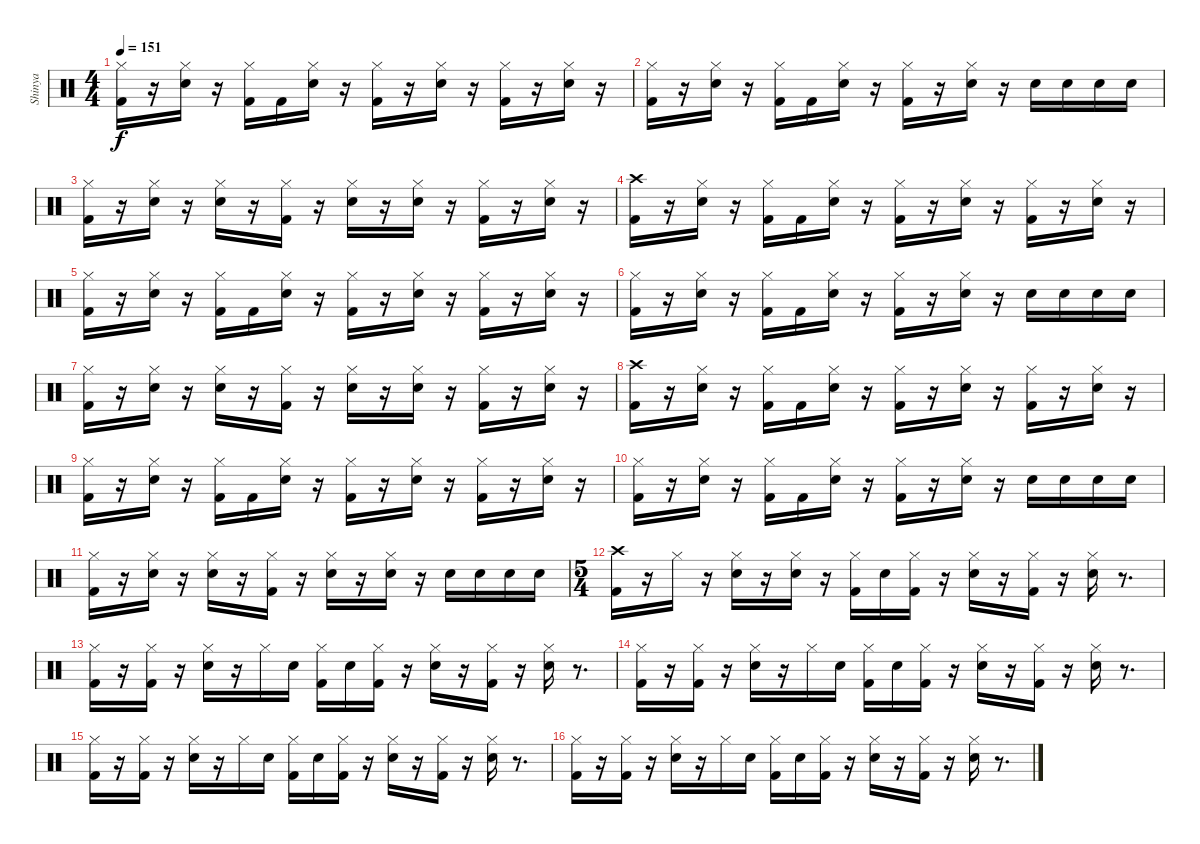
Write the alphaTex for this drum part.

\track ("Shinya" "Shinya") {instrument percussion}
\staff {score}
\articulation defaults
\ts (4 4)
\tempo 151
\clef neutral
\ks c
("Hi-Hat (closed)" "Kick (hit) 2").16{dy f} r.16 ("Snare (hit) 2" "Hi-Hat (closed)").16 r.16 ("Hi-Hat (closed)" "Kick (hit) 2").16 "Kick (hit) 2".16 ("Snare (hit) 2" "Hi-Hat (closed)").16 r.16 ("Hi-Hat (closed)" "Kick (hit) 2").16 r.16 ("Snare (hit) 2" "Hi-Hat (closed)").16 r.16 ("Hi-Hat (closed)" "Kick (hit) 2").16 r.16 ("Snare (hit) 2" "Hi-Hat (closed)").16 r.16 |
("Kick (hit) 2" "Hi-Hat (closed)").16 r.16 ("Snare (hit) 2" "Hi-Hat (closed)").16 r.16 ("Kick (hit) 2" "Hi-Hat (closed)").16 "Kick (hit) 2".16 ("Snare (hit) 2" "Hi-Hat (closed)").16 r.16 ("Kick (hit) 2" "Hi-Hat (closed)").16 r.16 ("Snare (hit) 2" "Hi-Hat (closed)").16 r.16 "Snare (hit) 2".16 "Snare (hit) 2".16 "Snare (hit) 2".16 "Snare (hit) 2".16 |
("Kick (hit) 2" "Hi-Hat (closed)").16 r.16 ("Snare (hit) 2" "Hi-Hat (closed)").16 r.16 ("Snare (hit) 2" "Hi-Hat (closed)").16 r.16 ("Kick (hit) 2" "Hi-Hat (closed)").16 r.16 ("Snare (hit) 2" "Hi-Hat (closed)").16 r.16 ("Snare (hit) 2" "Hi-Hat (closed)").16 r.16 ("Kick (hit) 2" "Hi-Hat (closed)").16 r.16 ("Snare (hit) 2" "Hi-Hat (closed)").16 r.16 |
("Kick (hit) 2" "Crash high (hit)").16 r.16 ("Snare (hit) 2" "Hi-Hat (closed)").16 r.16 ("Kick (hit) 2" "Hi-Hat (closed)").16 "Kick (hit) 2".16 ("Snare (hit) 2" "Hi-Hat (closed)").16 r.16 ("Kick (hit) 2" "Hi-Hat (closed)").16 r.16 ("Snare (hit) 2" "Hi-Hat (closed)").16 r.16 ("Kick (hit) 2" "Hi-Hat (closed)").16 r.16 ("Snare (hit) 2" "Hi-Hat (closed)").16 r.16 |
("Hi-Hat (closed)" "Kick (hit) 2").16 r.16 ("Snare (hit) 2" "Hi-Hat (closed)").16 r.16 ("Hi-Hat (closed)" "Kick (hit) 2").16 "Kick (hit) 2".16 ("Snare (hit) 2" "Hi-Hat (closed)").16 r.16 ("Hi-Hat (closed)" "Kick (hit) 2").16 r.16 ("Snare (hit) 2" "Hi-Hat (closed)").16 r.16 ("Hi-Hat (closed)" "Kick (hit) 2").16 r.16 ("Snare (hit) 2" "Hi-Hat (closed)").16 r.16 |
("Kick (hit) 2" "Hi-Hat (closed)").16 r.16 ("Snare (hit) 2" "Hi-Hat (closed)").16 r.16 ("Kick (hit) 2" "Hi-Hat (closed)").16 "Kick (hit) 2".16 ("Snare (hit) 2" "Hi-Hat (closed)").16 r.16 ("Kick (hit) 2" "Hi-Hat (closed)").16 r.16 ("Snare (hit) 2" "Hi-Hat (closed)").16 r.16 "Snare (hit) 2".16 "Snare (hit) 2".16 "Snare (hit) 2".16 "Snare (hit) 2".16 |
("Kick (hit) 2" "Hi-Hat (closed)").16 r.16 ("Snare (hit) 2" "Hi-Hat (closed)").16 r.16 ("Snare (hit) 2" "Hi-Hat (closed)").16 r.16 ("Kick (hit) 2" "Hi-Hat (closed)").16 r.16 ("Snare (hit) 2" "Hi-Hat (closed)").16 r.16 ("Snare (hit) 2" "Hi-Hat (closed)").16 r.16 ("Kick (hit) 2" "Hi-Hat (closed)").16 r.16 ("Snare (hit) 2" "Hi-Hat (closed)").16 r.16 |
("Kick (hit) 2" "Crash high (hit)").16 r.16 ("Snare (hit) 2" "Hi-Hat (closed)").16 r.16 ("Kick (hit) 2" "Hi-Hat (closed)").16 "Kick (hit) 2".16 ("Snare (hit) 2" "Hi-Hat (closed)").16 r.16 ("Kick (hit) 2" "Hi-Hat (closed)").16 r.16 ("Snare (hit) 2" "Hi-Hat (closed)").16 r.16 ("Kick (hit) 2" "Hi-Hat (closed)").16 r.16 ("Snare (hit) 2" "Hi-Hat (closed)").16 r.16 |
("Hi-Hat (closed)" "Kick (hit) 2").16 r.16 ("Snare (hit) 2" "Hi-Hat (closed)").16 r.16 ("Hi-Hat (closed)" "Kick (hit) 2").16 "Kick (hit) 2".16 ("Snare (hit) 2" "Hi-Hat (closed)").16 r.16 ("Hi-Hat (closed)" "Kick (hit) 2").16 r.16 ("Snare (hit) 2" "Hi-Hat (closed)").16 r.16 ("Hi-Hat (closed)" "Kick (hit) 2").16 r.16 ("Snare (hit) 2" "Hi-Hat (closed)").16 r.16 |
("Kick (hit) 2" "Hi-Hat (closed)").16 r.16 ("Snare (hit) 2" "Hi-Hat (closed)").16 r.16 ("Kick (hit) 2" "Hi-Hat (closed)").16 "Kick (hit) 2".16 ("Snare (hit) 2" "Hi-Hat (closed)").16 r.16 ("Kick (hit) 2" "Hi-Hat (closed)").16 r.16 ("Snare (hit) 2" "Hi-Hat (closed)").16 r.16 "Snare (hit) 2".16 "Snare (hit) 2".16 "Snare (hit) 2".16 "Snare (hit) 2".16 |
("Kick (hit) 2" "Hi-Hat (closed)").16 r.16 ("Snare (hit) 2" "Hi-Hat (closed)").16 r.16 ("Snare (hit) 2" "Hi-Hat (closed)").16 r.16 ("Kick (hit) 2" "Hi-Hat (closed)").16 r.16 ("Snare (hit) 2" "Hi-Hat (closed)").16 r.16 ("Snare (hit) 2" "Hi-Hat (closed)").16 r.16 "Snare (hit) 2".16 "Snare (hit) 2".16 "Snare (hit) 2".16 "Snare (hit) 2".16 |
\ts (5 4)
("Kick (hit) 2" "Crash high (hit)").16 r.16 "Hi-Hat (closed)".16 r.16 ("Snare (hit) 2" "Hi-Hat (closed)").16 r.16 ("Snare (hit) 2" "Hi-Hat (closed)").16 r.16 ("Hi-Hat (closed)" "Kick (hit) 2").16 "Snare (hit) 2".16 ("Kick (hit) 2" "Hi-Hat (closed)").16 r.16 ("Snare (hit) 2" "Hi-Hat (closed)").16 r.16 ("Kick (hit) 2" "Hi-Hat (closed)").16 r.16 ("Hi-Hat (closed)" "Snare (hit) 2").16 r.8{d} |
("Kick (hit) 2" "Hi-Hat (closed)").16 r.16 ("Kick (hit) 2" "Hi-Hat (closed)").16 r.16 ("Snare (hit) 2" "Hi-Hat (closed)").16 r.16 "Hi-Hat (closed)".16 "Snare (hit) 2".16 ("Hi-Hat (closed)" "Kick (hit) 2").16 "Snare (hit) 2".16 ("Hi-Hat (closed)" "Kick (hit) 2").16 r.16 ("Snare (hit) 2" "Hi-Hat (closed)").16 r.16 ("Hi-Hat (closed)" "Kick (hit) 2").16 r.16 ("Hi-Hat (closed)" "Snare (hit) 2").16 r.8{d} |
("Kick (hit) 2" "Hi-Hat (closed)").16 r.16 ("Kick (hit) 2" "Hi-Hat (closed)").16 r.16 ("Snare (hit) 2" "Hi-Hat (closed)").16 r.16 "Hi-Hat (closed)".16 "Snare (hit) 2".16 ("Hi-Hat (closed)" "Kick (hit) 2").16 "Snare (hit) 2".16 ("Hi-Hat (closed)" "Kick (hit) 2").16 r.16 ("Snare (hit) 2" "Hi-Hat (closed)").16 r.16 ("Hi-Hat (closed)" "Kick (hit) 2").16 r.16 ("Hi-Hat (closed)" "Snare (hit) 2").16 r.8{d} |
("Kick (hit) 2" "Hi-Hat (closed)").16 r.16 ("Kick (hit) 2" "Hi-Hat (closed)").16 r.16 ("Snare (hit) 2" "Hi-Hat (closed)").16 r.16 "Hi-Hat (closed)".16 "Snare (hit) 2".16 ("Hi-Hat (closed)" "Kick (hit) 2").16 "Snare (hit) 2".16 ("Hi-Hat (closed)" "Kick (hit) 2").16 r.16 ("Snare (hit) 2" "Hi-Hat (closed)").16 r.16 ("Hi-Hat (closed)" "Kick (hit) 2").16 r.16 ("Hi-Hat (closed)" "Snare (hit) 2").16 r.8{d} |
("Kick (hit) 2" "Hi-Hat (closed)").16 r.16 ("Kick (hit) 2" "Hi-Hat (closed)").16 r.16 ("Snare (hit) 2" "Hi-Hat (closed)").16 r.16 "Hi-Hat (closed)".16 "Snare (hit) 2".16 ("Hi-Hat (closed)" "Kick (hit) 2").16 "Snare (hit) 2".16 ("Hi-Hat (closed)" "Kick (hit) 2").16 r.16 ("Snare (hit) 2" "Hi-Hat (closed)").16 r.16 ("Hi-Hat (closed)" "Kick (hit) 2").16 r.16 ("Hi-Hat (closed)" "Snare (hit) 2").16 r.8{d}
